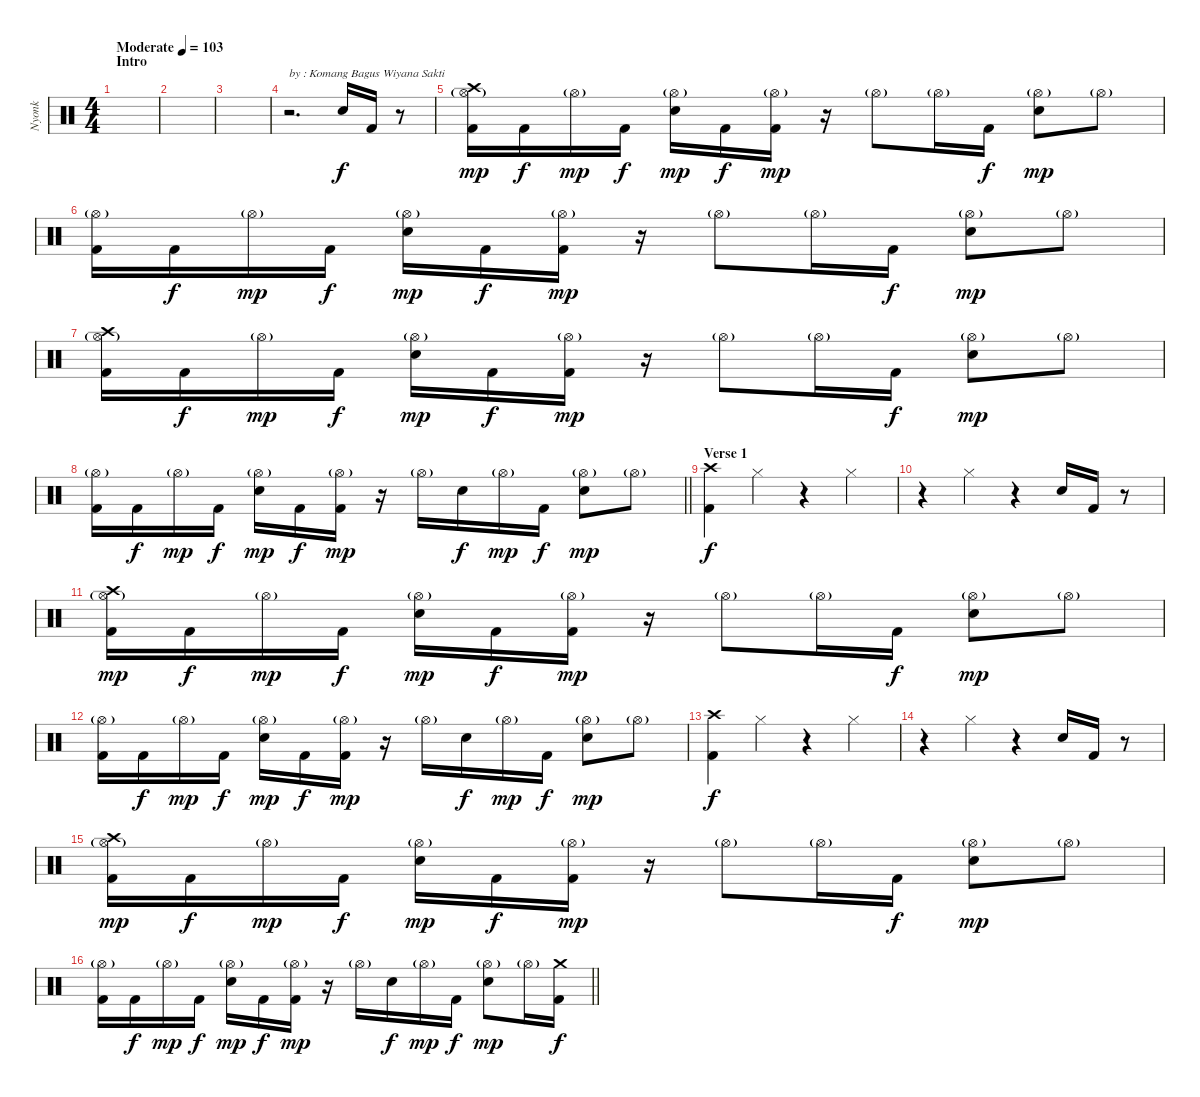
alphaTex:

\track ("Nyonk" "Nyonk") {instrument percussion}
\staff {score}
\articulation defaults
\ts (4 4)
\section ("" "Intro")
\tempo (103 "Moderate")
\clef neutral
\ks c
|
|
|
r.2{d txt "by : Komang Bagus Wiyana Sakti"} "Electric Snare (hit)".16 "Kick (hit) 2".16 r.8 |
("Crash high (hit)" "Hi-Hat (open)"{g} "Kick (hit) 2").16{dy mp} "Kick (hit) 2".16{dy f} "Hi-Hat (open)"{g}.16{dy mp} "Kick (hit) 2".16{dy f} ("Hi-Hat (open)"{g} "Electric Snare (hit)").16{dy mp} "Kick (hit) 2".16{dy f} ("Hi-Hat (open)"{g} "Kick (hit) 2").16{dy mp} r.16 "Hi-Hat (open)"{g}.8 "Hi-Hat (open)"{g}.16 "Kick (hit) 2".16{dy f} ("Hi-Hat (open)"{g} "Electric Snare (hit)").8{dy mp} "Hi-Hat (open)"{g}.8 |
("Hi-Hat (open)"{g} "Kick (hit) 2").16 "Kick (hit) 2".16{dy f} "Hi-Hat (open)"{g}.16{dy mp} "Kick (hit) 2".16{dy f} ("Hi-Hat (open)"{g} "Electric Snare (hit)").16{dy mp} "Kick (hit) 2".16{dy f} ("Hi-Hat (open)"{g} "Kick (hit) 2").16{dy mp} r.16 "Hi-Hat (open)"{g}.8 "Hi-Hat (open)"{g}.16 "Kick (hit) 2".16{dy f} ("Hi-Hat (open)"{g} "Electric Snare (hit)").8{dy mp} "Hi-Hat (open)"{g}.8 |
("Crash high (hit)" "Hi-Hat (open)"{g} "Kick (hit) 2").16 "Kick (hit) 2".16{dy f} "Hi-Hat (open)"{g}.16{dy mp} "Kick (hit) 2".16{dy f} ("Hi-Hat (open)"{g} "Electric Snare (hit)").16{dy mp} "Kick (hit) 2".16{dy f} ("Hi-Hat (open)"{g} "Kick (hit) 2").16{dy mp} r.16 "Hi-Hat (open)"{g}.8 "Hi-Hat (open)"{g}.16 "Kick (hit) 2".16{dy f} ("Hi-Hat (open)"{g} "Electric Snare (hit)").8{dy mp} "Hi-Hat (open)"{g}.8 |
\barLineRight lightlight
("Hi-Hat (open)"{g} "Kick (hit) 2").16 "Kick (hit) 2".16{dy f} "Hi-Hat (open)"{g}.16{dy mp} "Kick (hit) 2".16{dy f} ("Hi-Hat (open)"{g} "Electric Snare (hit)").16{dy mp} "Kick (hit) 2".16{dy f} ("Hi-Hat (open)"{g} "Kick (hit) 2").16{dy mp} r.16 "Hi-Hat (open)"{g}.16 "Electric Snare (hit)".16{dy f} "Hi-Hat (open)"{g}.16{dy mp} "Kick (hit) 2".16{dy f} ("Hi-Hat (open)"{g} "Electric Snare (hit)").8{dy mp} "Hi-Hat (open)"{g}.8 |
\section ("" "Verse 1")
("Crash high (hit)" "Kick (hit) 2").4{dy f} "Hi-Hat (closed)".4 r.4 "Hi-Hat (closed)".4 |
r.4 "Hi-Hat (closed)".4 r.4 "Electric Snare (hit)".16 "Kick (hit) 2".16 r.8 |
("Crash high (hit)" "Hi-Hat (open)"{g} "Kick (hit) 2").16{dy mp} "Kick (hit) 2".16{dy f} "Hi-Hat (open)"{g}.16{dy mp} "Kick (hit) 2".16{dy f} ("Hi-Hat (open)"{g} "Electric Snare (hit)").16{dy mp} "Kick (hit) 2".16{dy f} ("Hi-Hat (open)"{g} "Kick (hit) 2").16{dy mp} r.16 "Hi-Hat (open)"{g}.8 "Hi-Hat (open)"{g}.16 "Kick (hit) 2".16{dy f} ("Hi-Hat (open)"{g} "Electric Snare (hit)").8{dy mp} "Hi-Hat (open)"{g}.8 |
("Hi-Hat (open)"{g} "Kick (hit) 2").16 "Kick (hit) 2".16{dy f} "Hi-Hat (open)"{g}.16{dy mp} "Kick (hit) 2".16{dy f} ("Hi-Hat (open)"{g} "Electric Snare (hit)").16{dy mp} "Kick (hit) 2".16{dy f} ("Hi-Hat (open)"{g} "Kick (hit) 2").16{dy mp} r.16 "Hi-Hat (open)"{g}.16 "Electric Snare (hit)".16{dy f} "Hi-Hat (open)"{g}.16{dy mp} "Kick (hit) 2".16{dy f} ("Hi-Hat (open)"{g} "Electric Snare (hit)").8{dy mp} "Hi-Hat (open)"{g}.8 |
("Crash high (hit)" "Kick (hit) 2").4{dy f} "Hi-Hat (closed)".4 r.4 "Hi-Hat (closed)".4 |
r.4 "Hi-Hat (closed)".4 r.4 "Electric Snare (hit)".16 "Kick (hit) 2".16 r.8 |
("Crash high (hit)" "Hi-Hat (open)"{g} "Kick (hit) 2").16{dy mp} "Kick (hit) 2".16{dy f} "Hi-Hat (open)"{g}.16{dy mp} "Kick (hit) 2".16{dy f} ("Hi-Hat (open)"{g} "Electric Snare (hit)").16{dy mp} "Kick (hit) 2".16{dy f} ("Hi-Hat (open)"{g} "Kick (hit) 2").16{dy mp} r.16 "Hi-Hat (open)"{g}.8 "Hi-Hat (open)"{g}.16 "Kick (hit) 2".16{dy f} ("Hi-Hat (open)"{g} "Electric Snare (hit)").8{dy mp} "Hi-Hat (open)"{g}.8 |
\barLineRight lightlight
("Hi-Hat (open)"{g} "Kick (hit) 2").16 "Kick (hit) 2".16{dy f} "Hi-Hat (open)"{g}.16{dy mp} "Kick (hit) 2".16{dy f} ("Hi-Hat (open)"{g} "Electric Snare (hit)").16{dy mp} "Kick (hit) 2".16{dy f} ("Hi-Hat (open)"{g} "Kick (hit) 2").16{dy mp} r.16 "Hi-Hat (open)"{g}.16 "Electric Snare (hit)".16{dy f} "Hi-Hat (open)"{g}.16{dy mp} "Kick (hit) 2".16{dy f} ("Hi-Hat (open)"{g} "Electric Snare (hit)").8{dy mp} "Hi-Hat (open)"{g}.16 ("Crash medium (hit)" "Kick (hit) 2").16{dy f}
